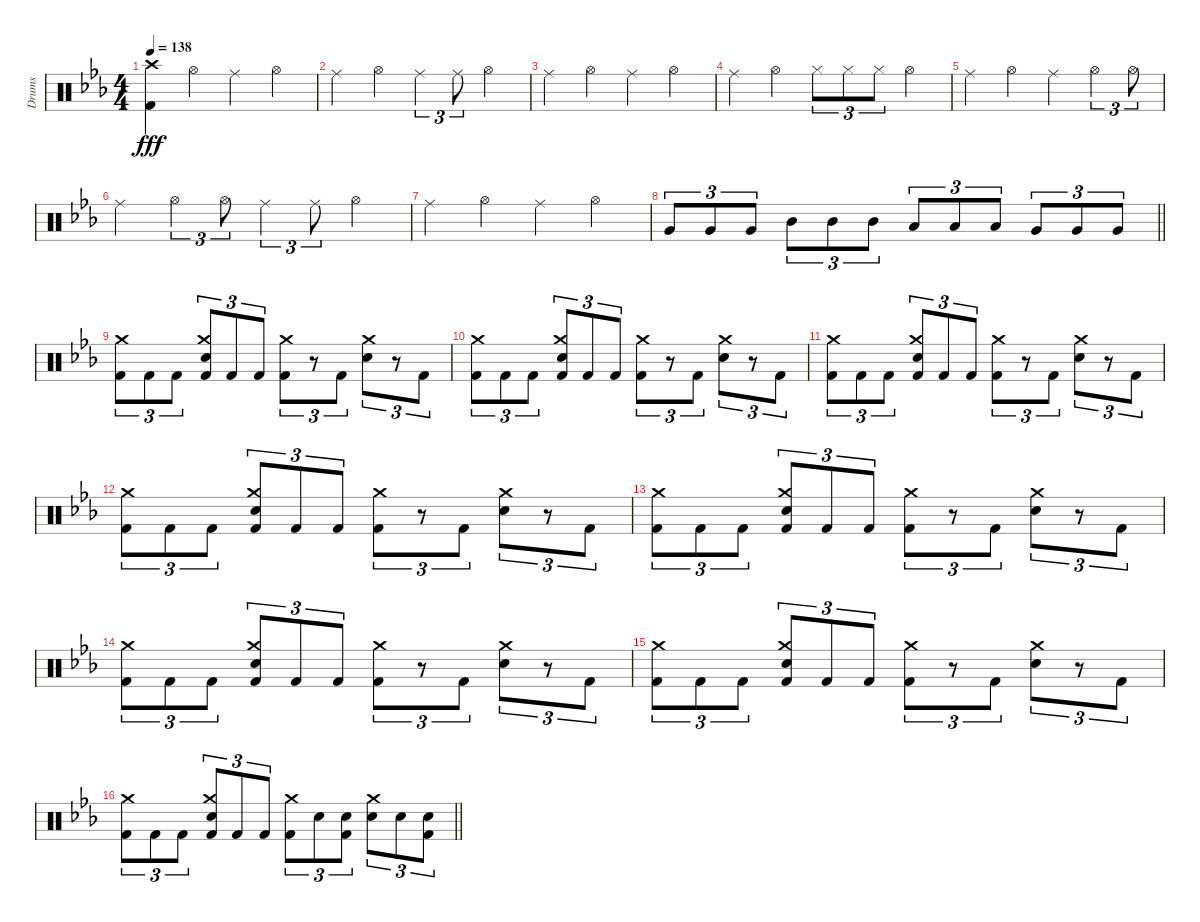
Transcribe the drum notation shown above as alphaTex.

\track ("Drums" "Drums") {instrument percussion}
\staff {score}
\articulation defaults
\ts (4 4)
\tempo 138
\clef neutral
\ks eb
("Crash high (hit)" "Kick (hit) 2").4{dy fff} "Hi-Hat (open)".4 "Ride (middle)".4 "Hi-Hat (open)".4 |
"Ride (middle)".4 "Hi-Hat (open)".4 "Ride (middle)".4{tu (3 2)} "Ride (middle)".8{tu (3 2)} "Hi-Hat (open)".4 |
"Ride (middle)".4 "Hi-Hat (open)".4 "Ride (middle)".4 "Hi-Hat (open)".4 |
"Ride (middle)".4 "Hi-Hat (open)".4 "Hi-Hat (closed)".8{tu (3 2)} "Hi-Hat (closed)".8{tu (3 2)} "Hi-Hat (closed)".8{tu (3 2)} "Hi-Hat (open)".4 |
"Ride (middle)".4 "Hi-Hat (open)".4 "Ride (middle)".4 "Hi-Hat (open)".4{tu (3 2)} "Hi-Hat (open)".8{tu (3 2)} |
"Ride (middle)".4 "Hi-Hat (open)".4{tu (3 2)} "Hi-Hat (open)".8{tu (3 2)} "Ride (middle)".4{tu (3 2)} "Ride (middle)".8{tu (3 2)} "Hi-Hat (open)".4 |
"Ride (middle)".4 "Hi-Hat (open)".4 "Ride (middle)".4 "Hi-Hat (open)".4 |
\barLineRight lightlight "Very Low Tom (hit)".8{tu (3 2)} "Very Low Tom (hit)".8{tu (3 2)} "Very Low Tom (hit)".8{tu (3 2)} "Mid Tom (hit)".8{tu (3 2)} "Mid Tom (hit)".8{tu (3 2)} "Mid Tom (hit)".8{tu (3 2)} "Low Tom (hit)".8{tu (3 2)} "Low Tom (hit)".8{tu (3 2)} "Low Tom (hit)".8{tu (3 2)} "Very Low Tom (hit)".8{tu (3 2)} "Very Low Tom (hit)".8{tu (3 2)} "Very Low Tom (hit)".8{tu (3 2)}
|
("Crash medium (hit)" "Kick (hit) 2").8{tu (3 2)} "Kick (hit) 2".8{tu (3 2)} "Kick (hit) 2".8{tu (3 2)} ("Crash medium (hit)" "Snare (hit) 2" "Kick (hit) 2").8{tu (3 2)} "Kick (hit) 2".8{tu (3 2)} "Kick (hit) 2".8{tu (3 2)} ("Crash medium (hit)" "Kick (hit) 2").8{tu (3 2)} r.8{tu (3 2)} "Kick (hit) 2".8{tu (3 2)} ("Crash medium (hit)" "Snare (hit) 2").8{tu (3 2)} r.8{tu (3 2)} "Kick (hit) 2".8{tu (3 2)} |
("Crash medium (hit)" "Kick (hit) 2").8{tu (3 2)} "Kick (hit) 2".8{tu (3 2)} "Kick (hit) 2".8{tu (3 2)} ("Crash medium (hit)" "Snare (hit) 2" "Kick (hit) 2").8{tu (3 2)} "Kick (hit) 2".8{tu (3 2)} "Kick (hit) 2".8{tu (3 2)} ("Crash medium (hit)" "Kick (hit) 2").8{tu (3 2)} r.8{tu (3 2)} "Kick (hit) 2".8{tu (3 2)} ("Crash medium (hit)" "Snare (hit) 2").8{tu (3 2)} r.8{tu (3 2)} "Kick (hit) 2".8{tu (3 2)} |
("Crash medium (hit)" "Kick (hit) 2").8{tu (3 2)} "Kick (hit) 2".8{tu (3 2)} "Kick (hit) 2".8{tu (3 2)} ("Crash medium (hit)" "Snare (hit) 2" "Kick (hit) 2").8{tu (3 2)} "Kick (hit) 2".8{tu (3 2)} "Kick (hit) 2".8{tu (3 2)} ("Crash medium (hit)" "Kick (hit) 2").8{tu (3 2)} r.8{tu (3 2)} "Kick (hit) 2".8{tu (3 2)} ("Crash medium (hit)" "Snare (hit) 2").8{tu (3 2)} r.8{tu (3 2)} "Kick (hit) 2".8{tu (3 2)} |
("Crash medium (hit)" "Kick (hit) 2").8{tu (3 2)} "Kick (hit) 2".8{tu (3 2)} "Kick (hit) 2".8{tu (3 2)} ("Crash medium (hit)" "Snare (hit) 2" "Kick (hit) 2").8{tu (3 2)} "Kick (hit) 2".8{tu (3 2)} "Kick (hit) 2".8{tu (3 2)} ("Crash medium (hit)" "Kick (hit) 2").8{tu (3 2)} r.8{tu (3 2)} "Kick (hit) 2".8{tu (3 2)} ("Crash medium (hit)" "Snare (hit) 2").8{tu (3 2)} r.8{tu (3 2)} "Kick (hit) 2".8{tu (3 2)} |
("Crash medium (hit)" "Kick (hit) 2").8{tu (3 2)} "Kick (hit) 2".8{tu (3 2)} "Kick (hit) 2".8{tu (3 2)} ("Crash medium (hit)" "Snare (hit) 2" "Kick (hit) 2").8{tu (3 2)} "Kick (hit) 2".8{tu (3 2)} "Kick (hit) 2".8{tu (3 2)} ("Crash medium (hit)" "Kick (hit) 2").8{tu (3 2)} r.8{tu (3 2)} "Kick (hit) 2".8{tu (3 2)} ("Crash medium (hit)" "Snare (hit) 2").8{tu (3 2)} r.8{tu (3 2)} "Kick (hit) 2".8{tu (3 2)} |
("Crash medium (hit)" "Kick (hit) 2").8{tu (3 2)} "Kick (hit) 2".8{tu (3 2)} "Kick (hit) 2".8{tu (3 2)} ("Crash medium (hit)" "Snare (hit) 2" "Kick (hit) 2").8{tu (3 2)} "Kick (hit) 2".8{tu (3 2)} "Kick (hit) 2".8{tu (3 2)} ("Crash medium (hit)" "Kick (hit) 2").8{tu (3 2)} r.8{tu (3 2)} "Kick (hit) 2".8{tu (3 2)} ("Crash medium (hit)" "Snare (hit) 2").8{tu (3 2)} r.8{tu (3 2)} "Kick (hit) 2".8{tu (3 2)} |
("Crash medium (hit)" "Kick (hit) 2").8{tu (3 2)} "Kick (hit) 2".8{tu (3 2)} "Kick (hit) 2".8{tu (3 2)} ("Crash medium (hit)" "Snare (hit) 2" "Kick (hit) 2").8{tu (3 2)} "Kick (hit) 2".8{tu (3 2)} "Kick (hit) 2".8{tu (3 2)} ("Crash medium (hit)" "Kick (hit) 2").8{tu (3 2)} r.8{tu (3 2)} "Kick (hit) 2".8{tu (3 2)} ("Crash medium (hit)" "Snare (hit) 2").8{tu (3 2)} r.8{tu (3 2)} "Kick (hit) 2".8{tu (3 2)} |
\barLineRight lightlight
("Crash medium (hit)" "Kick (hit) 2").8{tu (3 2)} "Kick (hit) 2".8{tu (3 2)} "Kick (hit) 2".8{tu (3 2)} ("Crash medium (hit)" "Snare (hit) 2" "Kick (hit) 2").8{tu (3 2)} "Kick (hit) 2".8{tu (3 2)} "Kick (hit) 2".8{tu (3 2)} ("Crash medium (hit)" "Kick (hit) 2").8{tu (3 2)} "Snare (hit) 2".8{tu (3 2)} ("Snare (hit) 2" "Kick (hit) 2").8{tu (3 2)} ("Crash medium (hit)" "Snare (hit) 2").8{tu (3 2)} "Snare (hit) 2".8{tu (3 2)} ("Snare (hit) 2" "Kick (hit) 2").8{tu (3 2)}
